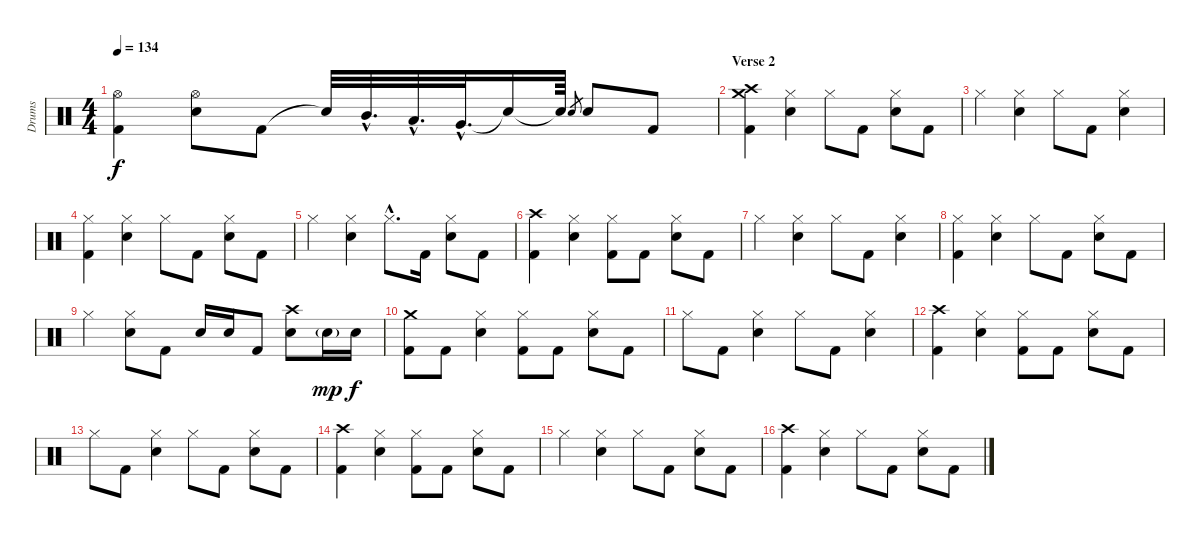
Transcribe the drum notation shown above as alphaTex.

\track ("Drums" "Drums") {instrument percussion}
\staff {score}
\articulation defaults
\ts (4 4)
\tempo 134
\clef neutral
\ks c
("Hi-Hat (open)" "Kick (hit) 2").4{dy f} ("Hi-Hat (open)" "Snare (hit) 2").8 "Kick (hit) 2".8 "Snare (hit)"{t}.32 "Mid Tom (hit)"{hac}.32{d} "Low Tom (hit)"{hac}.32{d} "Very Low Tom (hit)"{hac}.32{d} "Snare (hit)"{t}.16 "Snare (hit)"{t}.64 "Snare (hit) 2".8{gr} "Snare (hit) 2".8 "Kick (hit) 2".8 |
\section ("" "Verse 2")
("Crash medium (hit)" "Crash high (hit)" "Kick (hit) 2").4 ("Hi-Hat (closed)" "Snare (hit) 2").4 "Hi-Hat (closed)".8 "Kick (hit) 2".8 ("Hi-Hat (closed)" "Snare (hit) 2").8 "Kick (hit) 2".8 |
"Hi-Hat (closed)".4 ("Hi-Hat (closed)" "Snare (hit) 2").4 "Hi-Hat (closed)".8 "Kick (hit) 2".8 ("Hi-Hat (closed)" "Snare (hit) 2").4 |
("Hi-Hat (closed)" "Kick (hit) 2").4 ("Hi-Hat (closed)" "Snare (hit) 2").4 "Hi-Hat (closed)".8 "Kick (hit) 2".8 ("Hi-Hat (closed)" "Snare (hit) 2").8 "Kick (hit) 2".8 |
"Hi-Hat (closed)".4 ("Hi-Hat (closed)" "Snare (hit) 2").4 "Hi-Hat (closed)"{hac}.8{d} "Kick (hit) 2".16 ("Hi-Hat (closed)" "Snare (hit) 2").8 "Kick (hit) 2".8 |
("Crash high (hit)" "Kick (hit) 2").4 ("Hi-Hat (closed)" "Snare (hit) 2").4 ("Hi-Hat (closed)" "Kick (hit) 2").8 "Kick (hit) 2".8 ("Hi-Hat (closed)" "Snare (hit) 2").8 "Kick (hit) 2".8 |
"Hi-Hat (closed)".4 ("Hi-Hat (closed)" "Snare (hit) 2").4 "Hi-Hat (closed)".8 "Kick (hit) 2".8 ("Hi-Hat (closed)" "Snare (hit) 2").4 |
("Hi-Hat (closed)" "Kick (hit) 2").4 ("Hi-Hat (closed)" "Snare (hit) 2").4 "Hi-Hat (closed)".8 "Kick (hit) 2".8 ("Hi-Hat (closed)" "Snare (hit) 2").8 "Kick (hit) 2".8 |
"Hi-Hat (closed)".4 ("Hi-Hat (closed)" "Snare (hit) 2").8 "Kick (hit) 2".8 "Snare (hit) 2".16 "Snare (hit) 2".16 "Kick (hit) 2".8 ("Crash high (hit)" "Snare (hit) 2").8 "Snare (hit) 2"{g}.16{dy mp} "Snare (hit) 2".16{dy f} |
("Crash medium (hit)" "Kick (hit) 2").8 "Kick (hit) 2".8 ("Hi-Hat (closed)" "Snare (hit) 2").4 ("Hi-Hat (closed)" "Kick (hit) 2").8 "Kick (hit) 2".8 ("Hi-Hat (closed)" "Snare (hit) 2").8 "Kick (hit) 2".8 |
"Hi-Hat (closed)".8 "Kick (hit) 2".8 ("Hi-Hat (closed)" "Snare (hit) 2").4 "Hi-Hat (closed)".8 "Kick (hit) 2".8 ("Hi-Hat (closed)" "Snare (hit) 2").4 |
("Crash high (hit)" "Kick (hit) 2").4 ("Hi-Hat (closed)" "Snare (hit) 2").4 ("Hi-Hat (closed)" "Kick (hit) 2").8 "Kick (hit) 2".8 ("Hi-Hat (closed)" "Snare (hit) 2").8 "Kick (hit) 2".8 |
"Hi-Hat (closed)".8 "Kick (hit) 2".8 ("Hi-Hat (closed)" "Snare (hit) 2").4 "Hi-Hat (closed)".8 "Kick (hit) 2".8 ("Hi-Hat (closed)" "Snare (hit) 2").8 "Kick (hit) 2".8 |
("Crash high (hit)" "Kick (hit) 2").4 ("Hi-Hat (closed)" "Snare (hit) 2").4 ("Hi-Hat (closed)" "Kick (hit) 2").8 "Kick (hit) 2".8 ("Hi-Hat (closed)" "Snare (hit) 2").8 "Kick (hit) 2".8 |
"Hi-Hat (closed)".4 ("Hi-Hat (closed)" "Snare (hit) 2").4 "Hi-Hat (closed)".8 "Kick (hit) 2".8 ("Hi-Hat (closed)" "Snare (hit) 2").8 "Kick (hit) 2".8 |
("Crash high (hit)" "Kick (hit) 2").4 ("Hi-Hat (closed)" "Snare (hit) 2").4 "Hi-Hat (closed)".8 "Kick (hit) 2".8 ("Hi-Hat (closed)" "Snare (hit) 2").8 "Kick (hit) 2".8
